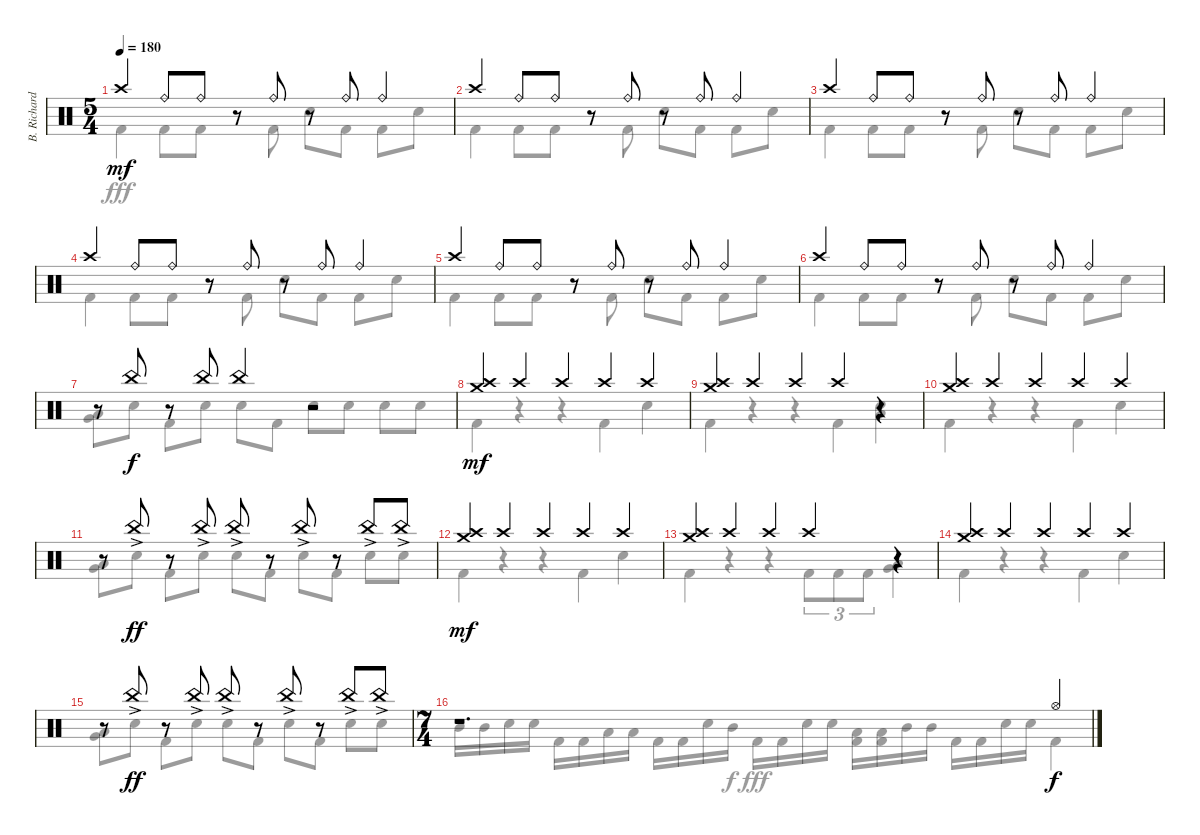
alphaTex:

\track ("B. Richardson Drums" "B. Richard") {instrument percussion}
\staff {score}
\articulation defaults
\voice
\ts (5 4)
\tempo 180
\clef neutral
\ks c "Crash high (hit)".4{dy mf} "Ride (bell)".8 "Ride (bell)".8
r.8 "Ride (bell)".8 r.8 "Ride (bell)".8 "Ride (bell)".4 |
"Crash high (hit)".4 "Ride (bell)".8 "Ride (bell)".8 r.8 "Ride (bell)".8 r.8 "Ride (bell)".8 "Ride (bell)".4 |
"Crash high (hit)".4 "Ride (bell)".8 "Ride (bell)".8 r.8 "Ride (bell)".8 r.8 "Ride (bell)".8 "Ride (bell)".4 |
"Crash high (hit)".4 "Ride (bell)".8 "Ride (bell)".8 r.8 "Ride (bell)".8 r.8 "Ride (bell)".8 "Ride (bell)".4 |
"Crash high (hit)".4 "Ride (bell)".8 "Ride (bell)".8 r.8 "Ride (bell)".8 r.8 "Ride (bell)".8 "Ride (bell)".4 |
"Crash high (hit)".4 "Ride (bell)".8 "Ride (bell)".8 r.8 "Ride (bell)".8 r.8 "Ride (bell)".8 "Ride (bell)".4 |
r.8 "China (hit)".8{dy f} r.8 "China (hit)".8 "China (hit)".4 r.2 |
("Crash high (hit)" "Crash medium (hit)").4{dy mf} "Crash high (hit)".4 "Crash high (hit)".4 "Crash high (hit)".4 "Crash high (hit)".4 |
("Crash high (hit)" "Crash medium (hit)").4 "Crash high (hit)".4 "Crash high (hit)".4 "Crash high (hit)".4 r.4 |
("Crash high (hit)" "Crash medium (hit)").4 "Crash high (hit)".4 "Crash high (hit)".4 "Crash high (hit)".4 "Crash high (hit)".4 |
r.8 "China (hit)"{ac}.8{dy ff} r.8 "China (hit)"{ac}.8 "China (hit)"{ac}.8 r.8 "China (hit)"{ac}.8 r.8 "China (hit)"{ac}.8 "China (hit)"{ac}.8 |
("Crash high (hit)" "Crash medium (hit)").4{dy mf} "Crash high (hit)".4 "Crash high (hit)".4 "Crash high (hit)".4 "Crash high (hit)".4 |
("Crash high (hit)" "Crash medium (hit)").4 "Crash high (hit)".4 "Crash high (hit)".4 "Crash high (hit)".4 r.4 |
("Crash high (hit)" "Crash medium (hit)").4 "Crash high (hit)".4 "Crash high (hit)".4 "Crash high (hit)".4 "Crash high (hit)".4 |
r.8 "China (hit)"{ac}.8{dy ff} r.8 "China (hit)"{ac}.8 "China (hit)"{ac}.8 r.8 "China (hit)"{ac}.8 r.8 "China (hit)"{ac}.8 "China (hit)"{ac}.8 |
\ts (7 4)
r.1{d} "Hi-Hat (open)".4{dy f}
\voice
\clef neutral
\ottava regular
\simile none
\ks c "Kick (hit) 2".4{dy fff} "Kick (hit) 2".8 "Kick (hit) 2".8
r.8 "Kick (hit) 2".8 "Electric Snare (hit)".8 "Kick (hit) 2".8 "Kick (hit) 2".8 "Electric Snare (hit)".8 |
"Kick (hit) 2".4 "Kick (hit) 2".8 "Kick (hit) 2".8 r.8 "Kick (hit) 2".8 "Electric Snare (hit)".8 "Kick (hit) 2".8 "Kick (hit) 2".8 "Electric Snare (hit)".8 |
"Kick (hit) 2".4 "Kick (hit) 2".8 "Kick (hit) 2".8 r.8 "Kick (hit) 2".8 "Electric Snare (hit)".8 "Kick (hit) 2".8 "Kick (hit) 2".8 "Electric Snare (hit)".8 |
"Kick (hit) 2".4 "Kick (hit) 2".8 "Kick (hit) 2".8 r.8 "Kick (hit) 2".8 "Electric Snare (hit)".8 "Kick (hit) 2".8 "Kick (hit) 2".8 "Electric Snare (hit)".8 |
"Kick (hit) 2".4 "Kick (hit) 2".8 "Kick (hit) 2".8 r.8 "Kick (hit) 2".8 "Electric Snare (hit)".8 "Kick (hit) 2".8 "Kick (hit) 2".8 "Electric Snare (hit)".8 |
"Kick (hit) 2".4 "Kick (hit) 2".8 "Kick (hit) 2".8 r.8 "Kick (hit) 2".8 "Electric Snare (hit)".8 "Kick (hit) 2".8 "Kick (hit) 2".8 "Electric Snare (hit)".8 |
("Low Tom (hit)" "Very Low Tom (hit)").8 "Electric Snare (hit)".8 "Kick (hit) 2".8 "Electric Snare (hit)".8 "Electric Snare (hit)".8 "Kick (hit) 2".8 "Electric Snare (hit)".8 "Electric Snare (hit)".8 "Electric Snare (hit)".8 "Electric Snare (hit)".8 |
"Kick (hit) 2".4 r.4 r.4 "Kick (hit) 2".4 "Electric Snare (hit)".4 |
"Kick (hit) 2".4 r.4 r.4 "Kick (hit) 2".4 ("Electric Snare (hit)" "Low Tom (hit)").4 |
"Kick (hit) 2".4 r.4 r.4 "Kick (hit) 2".4 "Electric Snare (hit)".4 |
("Low Tom (hit)" "Very Low Tom (hit)").8 "Electric Snare (hit)".8 "Kick (hit) 2".8 "Electric Snare (hit)".8 "Electric Snare (hit)".8 "Kick (hit) 2".8 "Electric Snare (hit)".8 "Kick (hit) 2".8 "Electric Snare (hit)".8 "Electric Snare (hit)".8 |
"Kick (hit) 2".4 r.4 r.4 "Kick (hit) 2".4 "Electric Snare (hit)".4 |
"Kick (hit) 2".4 r.4 r.4 "Kick (hit) 2".8{tu (3 2)} "Kick (hit) 2".8{tu (3 2)} "Kick (hit) 2".8{tu (3 2)} ("Low Tom (hit)" "Very Low Tom (hit)").4 |
"Kick (hit) 2".4 r.4 r.4 "Kick (hit) 2".4 "Electric Snare (hit)".4 |
("Low Tom (hit)" "Very Low Tom (hit)").8 "Electric Snare (hit)".8 "Kick (hit) 2".8 "Electric Snare (hit)".8 "Electric Snare (hit)".8 "Kick (hit) 2".8 "Electric Snare (hit)".8 "Kick (hit) 2".8 "Electric Snare (hit)".8 "Electric Snare (hit)".8 |
"Mid Tom (hit)".16 "Mid Tom (hit)".16 "Electric Snare (hit)".16 "Electric Snare (hit)".16 "Kick (hit) 2".16 "Kick (hit) 2".16 "Low Tom (hit)".16 "Low Tom (hit)".16 "Kick (hit) 2".16 "Kick (hit) 2".16 "Electric Snare (hit)".16 "Mid Tom (hit)".16{dy f} "Kick (hit) 2".16{dy fff} "Kick (hit) 2".16 "Electric Snare (hit)".16 "Electric Snare (hit)".16 ("Low Tom (hit)" "Kick (hit) 2").16 ("Low Tom (hit)" "Kick (hit) 2").16 "Mid Tom (hit)".16 "Mid Tom (hit)".16 "Kick (hit) 2".16 "Kick (hit) 2".16 "Electric Snare (hit)".16 "Electric Snare (hit)".16 "Kick (hit) 2".4
